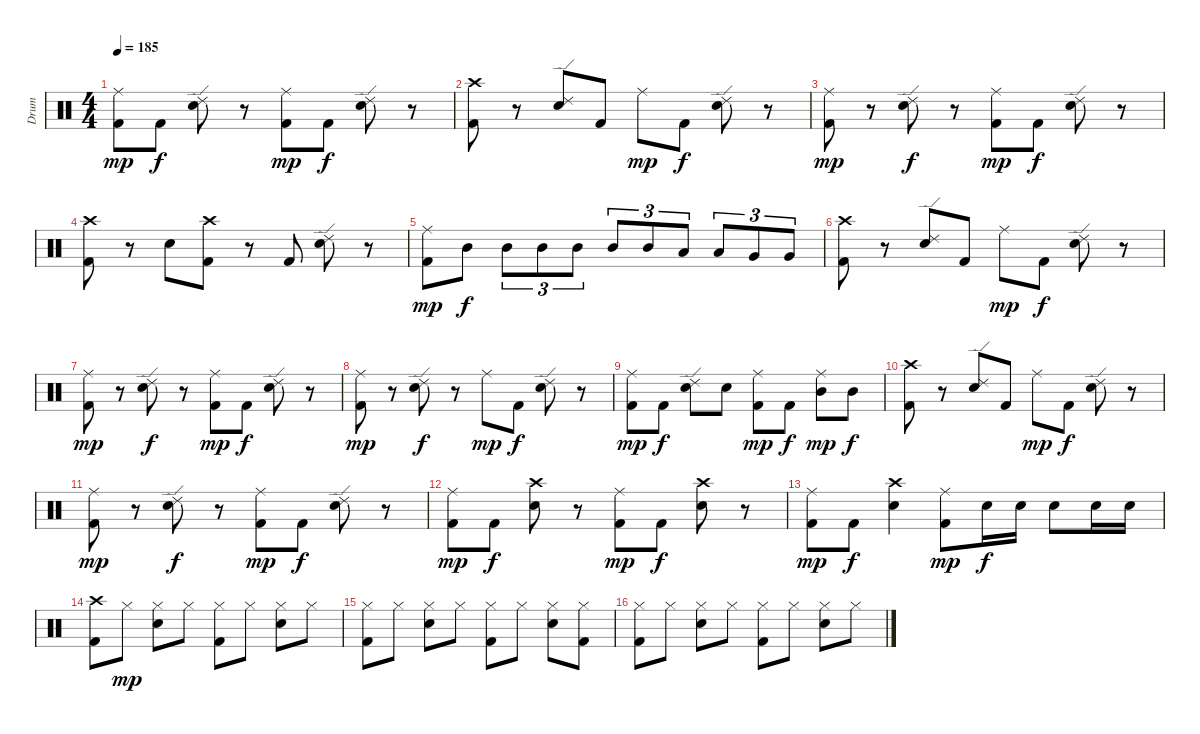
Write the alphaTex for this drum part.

\track ("Drum" "Drum") {instrument percussion}
\staff {score}
\articulation defaults
\ts (4 4)
\tempo 185
\clef neutral
\ks c
("Ride (middle)" "Kick (hit) 2").8{dy mp} "Kick (hit) 2".8{dy f} ("Ride (edge) 2" "Electric Snare (hit)").8 r.8 ("Ride (middle)" "Kick (hit) 2").8{dy mp} "Kick (hit) 2".8{dy f} ("Ride (edge) 2" "Electric Snare (hit)").8 r.8 |
("Kick (hit) 2" "Crash high (hit)").8 r.8 ("Ride (edge) 2" "Electric Snare (hit)").8 "Kick (hit) 2".8 "Ride (middle)".8{dy mp} "Kick (hit) 2".8{dy f} ("Ride (edge) 2" "Electric Snare (hit)").8 r.8 |
("Ride (middle)" "Kick (hit) 2").8{dy mp} r.8 ("Ride (edge) 2" "Electric Snare (hit)").8{dy f} r.8 ("Ride (middle)" "Kick (hit) 2").8{dy mp} "Kick (hit) 2".8{dy f} ("Ride (edge) 2" "Electric Snare (hit)").8 r.8 |
("Crash high (hit)" "Kick (hit) 2").8 r.8 "Electric Snare (hit)".8 ("Kick (hit) 2" "Crash high (hit)").8 r.8 "Kick (hit) 2".8 ("Ride (edge) 2" "Electric Snare (hit)").8 r.8 |
("Ride (middle)" "Kick (hit) 2").8{dy mp} "Mid Tom (hit)".8{dy f} "Mid Tom (hit)".8{tu (3 2)} "Mid Tom (hit)".8{tu (3 2)} "Mid Tom (hit)".8{tu (3 2)} "Mid Tom (hit)".8{tu (3 2)} "Mid Tom (hit)".8{tu (3 2)} "Low Tom (hit)".8{tu (3 2)} "Low Tom (hit)".8{tu (3 2)} "Very Low Tom (hit)".8{tu (3 2)} "Very Low Tom (hit)".8{tu (3 2)} |
("Crash high (hit)" "Kick (hit) 2").8 r.8 ("Ride (edge) 2" "Electric Snare (hit)").8 "Kick (hit) 2".8 "Ride (middle)".8{dy mp} "Kick (hit) 2".8{dy f} ("Ride (edge) 2" "Electric Snare (hit)").8 r.8 |
("Ride (middle)" "Kick (hit) 2").8{dy mp} r.8 ("Ride (edge) 2" "Electric Snare (hit)").8{dy f} r.8 ("Ride (middle)" "Kick (hit) 2").8{dy mp} "Kick (hit) 2".8{dy f} ("Ride (edge) 2" "Electric Snare (hit)").8 r.8 |
("Ride (middle)" "Kick (hit) 2").8{dy mp} r.8 ("Ride (edge) 2" "Electric Snare (hit)").8{dy f} r.8 "Ride (middle)".8{dy mp} "Kick (hit) 2".8{dy f} ("Ride (edge) 2" "Electric Snare (hit)").8 r.8 |
("Kick (hit) 2" "Ride (middle)").8{dy mp} "Kick (hit) 2".8{dy f} ("Ride (edge) 2" "Electric Snare (hit)").8 "Electric Snare (hit)".8 ("Kick (hit) 2" "Ride (middle)").8{dy mp} "Kick (hit) 2".8{dy f} ("Mid Tom (hit)" "Ride (middle)").8{dy mp} "Mid Tom (hit)".8{dy f} |
("Crash high (hit)" "Kick (hit) 2").8 r.8 ("Ride (edge) 2" "Electric Snare (hit)").8 "Kick (hit) 2".8 "Ride (middle)".8{dy mp} "Kick (hit) 2".8{dy f} ("Ride (edge) 2" "Electric Snare (hit)").8 r.8 |
("Ride (middle)" "Kick (hit) 2").8{dy mp} r.8 ("Ride (edge) 2" "Electric Snare (hit)").8{dy f} r.8 ("Ride (middle)" "Kick (hit) 2").8{dy mp} "Kick (hit) 2".8{dy f} ("Ride (edge) 2" "Electric Snare (hit)").8 r.8 |
("Kick (hit) 2" "Ride (middle)").8{dy mp} "Kick (hit) 2".8{dy f} ("Crash high (hit)" "Electric Snare (hit)").8 r.8 ("Kick (hit) 2" "Ride (middle)").8{dy mp} "Kick (hit) 2".8{dy f} ("Crash high (hit)" "Electric Snare (hit)").8 r.8 |
("Ride (middle)" "Kick (hit) 2").8{dy mp} "Kick (hit) 2".8{dy f} ("Crash high (hit)" "Electric Snare (hit)").4 ("Kick (hit) 2" "Ride (middle)").8{dy mp} "Electric Snare (hit)".16{dy f} "Electric Snare (hit)".16 "Electric Snare (hit)".8 "Electric Snare (hit)".16 "Electric Snare (hit)".16 |
("Crash high (hit)" "Kick (hit) 2").8 "Hi-Hat (closed)".8{dy mp} ("Hi-Hat (closed)" "Electric Snare (hit)").8 "Hi-Hat (closed)".8 ("Hi-Hat (closed)" "Kick (hit) 2").8 "Hi-Hat (closed)".8 ("Hi-Hat (closed)" "Electric Snare (hit)").8 "Hi-Hat (closed)".8 |
("Kick (hit) 2" "Hi-Hat (closed)").8 "Hi-Hat (closed)".8 ("Hi-Hat (closed)" "Electric Snare (hit)").8 "Hi-Hat (closed)".8 ("Kick (hit) 2" "Hi-Hat (closed)").8 "Hi-Hat (closed)".8 ("Hi-Hat (closed)" "Electric Snare (hit)").8 ("Hi-Hat (closed)" "Kick (hit) 2").8 |
("Hi-Hat (closed)" "Kick (hit) 2").8 "Hi-Hat (closed)".8 ("Hi-Hat (closed)" "Electric Snare (hit)").8 "Hi-Hat (closed)".8 ("Hi-Hat (closed)" "Kick (hit) 2").8 "Hi-Hat (closed)".8 ("Hi-Hat (closed)" "Electric Snare (hit)").8 "Hi-Hat (closed)".8
